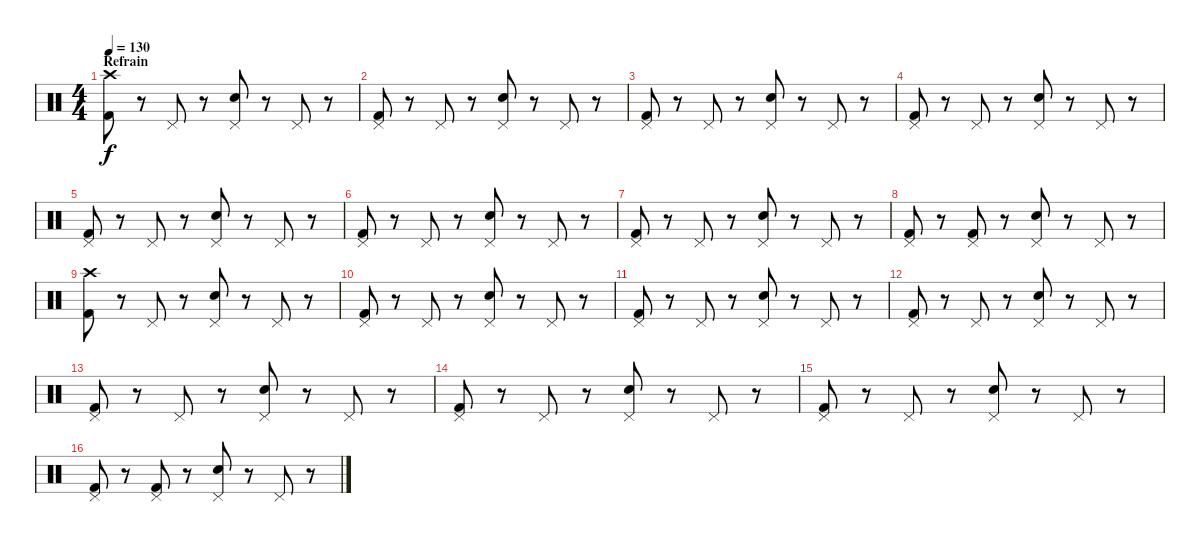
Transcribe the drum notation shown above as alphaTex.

\track "" {instrument percussion}
\staff {score}
\articulation defaults
\ts (4 4)
\section ("" "Refrain")
\tempo 130
\clef neutral
\ks c
("Crash high (hit)" "Kick (hit) 2").8{dy f} r.8 "Pedal Hi-Hat (hit)".8 r.8 ("Pedal Hi-Hat (hit)" "Electric Snare (hit)").8 r.8 "Pedal Hi-Hat (hit)".8 r.8 |
("Pedal Hi-Hat (hit)" "Kick (hit) 2").8 r.8 "Pedal Hi-Hat (hit)".8 r.8 ("Pedal Hi-Hat (hit)" "Electric Snare (hit)").8 r.8 "Pedal Hi-Hat (hit)".8 r.8 |
("Pedal Hi-Hat (hit)" "Kick (hit) 2").8 r.8 "Pedal Hi-Hat (hit)".8 r.8 ("Pedal Hi-Hat (hit)" "Electric Snare (hit)").8 r.8 "Pedal Hi-Hat (hit)".8 r.8 |
("Pedal Hi-Hat (hit)" "Kick (hit) 2").8 r.8 "Pedal Hi-Hat (hit)".8 r.8 ("Pedal Hi-Hat (hit)" "Electric Snare (hit)").8 r.8 "Pedal Hi-Hat (hit)".8 r.8 |
("Pedal Hi-Hat (hit)" "Kick (hit) 2").8 r.8 "Pedal Hi-Hat (hit)".8 r.8 ("Pedal Hi-Hat (hit)" "Electric Snare (hit)").8 r.8 "Pedal Hi-Hat (hit)".8 r.8 |
("Pedal Hi-Hat (hit)" "Kick (hit) 2").8 r.8 "Pedal Hi-Hat (hit)".8 r.8 ("Pedal Hi-Hat (hit)" "Electric Snare (hit)").8 r.8 "Pedal Hi-Hat (hit)".8 r.8 |
("Pedal Hi-Hat (hit)" "Kick (hit) 2").8 r.8 "Pedal Hi-Hat (hit)".8 r.8 ("Pedal Hi-Hat (hit)" "Electric Snare (hit)").8 r.8 "Pedal Hi-Hat (hit)".8 r.8 |
("Pedal Hi-Hat (hit)" "Kick (hit) 2").8 r.8 ("Pedal Hi-Hat (hit)" "Kick (hit) 2").8 r.8 ("Pedal Hi-Hat (hit)" "Electric Snare (hit)").8 r.8 "Pedal Hi-Hat (hit)".8 r.8 |
("Crash high (hit)" "Kick (hit) 2").8 r.8 "Pedal Hi-Hat (hit)".8 r.8 ("Pedal Hi-Hat (hit)" "Electric Snare (hit)").8 r.8 "Pedal Hi-Hat (hit)".8 r.8 |
("Pedal Hi-Hat (hit)" "Kick (hit) 2").8 r.8 "Pedal Hi-Hat (hit)".8 r.8 ("Pedal Hi-Hat (hit)" "Electric Snare (hit)").8 r.8 "Pedal Hi-Hat (hit)".8 r.8 |
("Pedal Hi-Hat (hit)" "Kick (hit) 2").8 r.8 "Pedal Hi-Hat (hit)".8 r.8 ("Pedal Hi-Hat (hit)" "Electric Snare (hit)").8 r.8 "Pedal Hi-Hat (hit)".8 r.8 |
("Pedal Hi-Hat (hit)" "Kick (hit) 2").8 r.8 "Pedal Hi-Hat (hit)".8 r.8 ("Pedal Hi-Hat (hit)" "Electric Snare (hit)").8 r.8 "Pedal Hi-Hat (hit)".8 r.8 |
("Pedal Hi-Hat (hit)" "Kick (hit) 2").8 r.8 "Pedal Hi-Hat (hit)".8 r.8 ("Pedal Hi-Hat (hit)" "Electric Snare (hit)").8 r.8 "Pedal Hi-Hat (hit)".8 r.8 |
("Pedal Hi-Hat (hit)" "Kick (hit) 2").8 r.8 "Pedal Hi-Hat (hit)".8 r.8 ("Pedal Hi-Hat (hit)" "Electric Snare (hit)").8 r.8 "Pedal Hi-Hat (hit)".8 r.8 |
("Pedal Hi-Hat (hit)" "Kick (hit) 2").8 r.8 "Pedal Hi-Hat (hit)".8 r.8 ("Pedal Hi-Hat (hit)" "Electric Snare (hit)").8 r.8 "Pedal Hi-Hat (hit)".8 r.8 |
("Pedal Hi-Hat (hit)" "Kick (hit) 2").8 r.8 ("Pedal Hi-Hat (hit)" "Kick (hit) 2").8 r.8 ("Pedal Hi-Hat (hit)" "Electric Snare (hit)").8 r.8 "Pedal Hi-Hat (hit)".8 r.8
